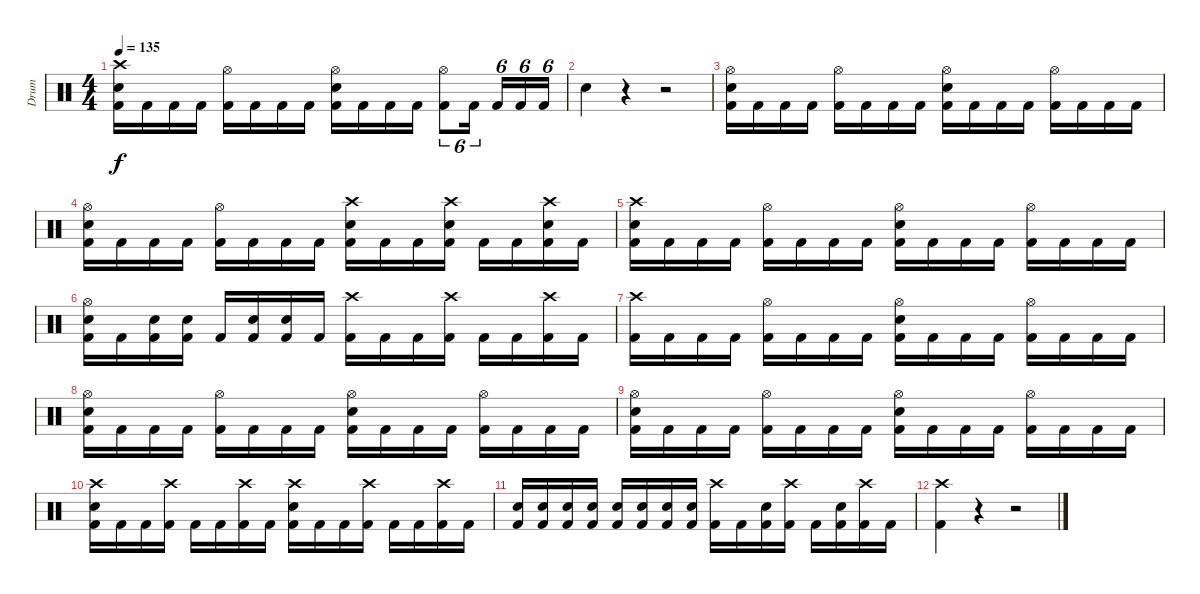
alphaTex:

\track ("Drum" "Drum") {instrument percussion}
\staff {score}
\articulation defaults
\ts (4 4)
\tempo 135
\clef neutral
\ks c
("Crash high (hit)" "Snare (hit) 2" "Kick (hit) 2").16{dy f} "Kick (hit) 2".16 "Kick (hit) 2".16 "Kick (hit) 2".16 ("Hi-Hat (open)" "Kick (hit) 2").16 "Kick (hit) 2".16 "Kick (hit) 2".16 "Kick (hit) 2".16 ("Hi-Hat (open)" "Snare (hit) 2" "Kick (hit) 2").16 "Kick (hit) 2".16 "Kick (hit) 2".16 "Kick (hit) 2".16 ("Hi-Hat (open)" "Kick (hit) 2").8{tu (6 4)} "Kick (hit) 2".16{tu (6 4)} "Kick (hit) 2".16{tu (6 4)} "Kick (hit) 2".16{tu (6 4)} "Kick (hit) 2".16{tu (6 4)} |
"Snare (hit) 2".4 r.4 r.2 |
("Hi-Hat (open)" "Snare (hit) 2" "Kick (hit) 2").16 "Kick (hit) 2".16 "Kick (hit) 2".16 "Kick (hit) 2".16 ("Hi-Hat (open)" "Kick (hit) 2").16 "Kick (hit) 2".16 "Kick (hit) 2".16 "Kick (hit) 2".16 ("Hi-Hat (open)" "Snare (hit) 2" "Kick (hit) 2").16 "Kick (hit) 2".16 "Kick (hit) 2".16 "Kick (hit) 2".16 ("Hi-Hat (open)" "Kick (hit) 2").16 "Kick (hit) 2".16 "Kick (hit) 2".16 "Kick (hit) 2".16 |
("Hi-Hat (open)" "Snare (hit) 2" "Kick (hit) 2").16 "Kick (hit) 2".16 "Kick (hit) 2".16 "Kick (hit) 2".16 ("Hi-Hat (open)" "Kick (hit) 2").16 "Kick (hit) 2".16 "Kick (hit) 2".16 "Kick (hit) 2".16 ("Crash high (hit)" "Snare (hit) 2" "Kick (hit) 2").16 "Kick (hit) 2".16 "Kick (hit) 2".16 ("Crash high (hit)" "Snare (hit) 2" "Kick (hit) 2").16 "Kick (hit) 2".16 "Kick (hit) 2".16 ("Crash high (hit)" "Snare (hit) 2" "Kick (hit) 2").16 "Kick (hit) 2".16 |
("Crash high (hit)" "Snare (hit) 2" "Kick (hit) 2").16 "Kick (hit) 2".16 "Kick (hit) 2".16 "Kick (hit) 2".16 ("Hi-Hat (open)" "Kick (hit) 2").16 "Kick (hit) 2".16 "Kick (hit) 2".16 "Kick (hit) 2".16 ("Hi-Hat (open)" "Snare (hit) 2" "Kick (hit) 2").16 "Kick (hit) 2".16 "Kick (hit) 2".16 "Kick (hit) 2".16 ("Hi-Hat (open)" "Kick (hit) 2").16 "Kick (hit) 2".16 "Kick (hit) 2".16 "Kick (hit) 2".16 |
("Hi-Hat (open)" "Snare (hit) 2" "Kick (hit) 2").16 "Kick (hit) 2".16 ("Snare (hit) 2" "Kick (hit) 2").16 ("Snare (hit) 2" "Kick (hit) 2").16 "Kick (hit) 2".16 ("Snare (hit) 2" "Kick (hit) 2").16 ("Snare (hit) 2" "Kick (hit) 2").16 "Kick (hit) 2".16 ("Crash high (hit)" "Kick (hit) 2").16 "Kick (hit) 2".16 "Kick (hit) 2".16 ("Crash high (hit)" "Kick (hit) 2").16 "Kick (hit) 2".16 "Kick (hit) 2".16 ("Crash high (hit)" "Kick (hit) 2").16 "Kick (hit) 2".16 |
("Crash high (hit)" "Kick (hit) 2").16 "Kick (hit) 2".16 "Kick (hit) 2".16 "Kick (hit) 2".16 ("Hi-Hat (open)" "Kick (hit) 2").16 "Kick (hit) 2".16 "Kick (hit) 2".16 "Kick (hit) 2".16 ("Hi-Hat (open)" "Snare (hit) 2" "Kick (hit) 2").16 "Kick (hit) 2".16 "Kick (hit) 2".16 "Kick (hit) 2".16 ("Hi-Hat (open)" "Kick (hit) 2").16 "Kick (hit) 2".16 "Kick (hit) 2".16 "Kick (hit) 2".16 |
("Hi-Hat (open)" "Snare (hit) 2" "Kick (hit) 2").16 "Kick (hit) 2".16 "Kick (hit) 2".16 "Kick (hit) 2".16 ("Hi-Hat (open)" "Kick (hit) 2").16 "Kick (hit) 2".16 "Kick (hit) 2".16 "Kick (hit) 2".16 ("Hi-Hat (open)" "Snare (hit) 2" "Kick (hit) 2").16 "Kick (hit) 2".16 "Kick (hit) 2".16 "Kick (hit) 2".16 ("Hi-Hat (open)" "Kick (hit) 2").16 "Kick (hit) 2".16 "Kick (hit) 2".16 "Kick (hit) 2".16 |
("Hi-Hat (open)" "Snare (hit) 2" "Kick (hit) 2").16 "Kick (hit) 2".16 "Kick (hit) 2".16 "Kick (hit) 2".16 ("Hi-Hat (open)" "Kick (hit) 2").16 "Kick (hit) 2".16 "Kick (hit) 2".16 "Kick (hit) 2".16 ("Hi-Hat (open)" "Snare (hit) 2" "Kick (hit) 2").16 "Kick (hit) 2".16 "Kick (hit) 2".16 "Kick (hit) 2".16 ("Hi-Hat (open)" "Kick (hit) 2").16 "Kick (hit) 2".16 "Kick (hit) 2".16 "Kick (hit) 2".16 |
("Crash high (hit)" "Snare (hit) 2" "Kick (hit) 2").16 "Kick (hit) 2".16 "Kick (hit) 2".16 ("Crash high (hit)" "Kick (hit) 2").16 "Kick (hit) 2".16 "Kick (hit) 2".16 ("Crash high (hit)" "Kick (hit) 2").16 "Kick (hit) 2".16 ("Crash high (hit)" "Snare (hit) 2" "Kick (hit) 2").16 "Kick (hit) 2".16 "Kick (hit) 2".16 ("Crash high (hit)" "Kick (hit) 2").16 "Kick (hit) 2".16 "Kick (hit) 2".16 ("Crash high (hit)" "Kick (hit) 2").16 "Kick (hit) 2".16 |
("Snare (hit) 2" "Kick (hit) 2").16 ("Snare (hit) 2" "Kick (hit) 2").16 ("Snare (hit) 2" "Kick (hit) 2").16 ("Snare (hit) 2" "Kick (hit) 2").16 ("Snare (hit) 2" "Kick (hit) 2").16 ("Snare (hit) 2" "Kick (hit) 2").16 ("Snare (hit) 2" "Kick (hit) 2").16 ("Snare (hit) 2" "Kick (hit) 2").16 ("Crash high (hit)" "Kick (hit) 2").16 "Kick (hit) 2".16 ("Snare (hit) 2" "Kick (hit) 2").16 ("Crash high (hit)" "Kick (hit) 2").16 "Kick (hit) 2".16 ("Snare (hit) 2" "Kick (hit) 2").16 ("Crash high (hit)" "Kick (hit) 2").16 "Kick (hit) 2".16 |
("Crash high (hit)" "Kick (hit) 2").4 r.4 r.2
